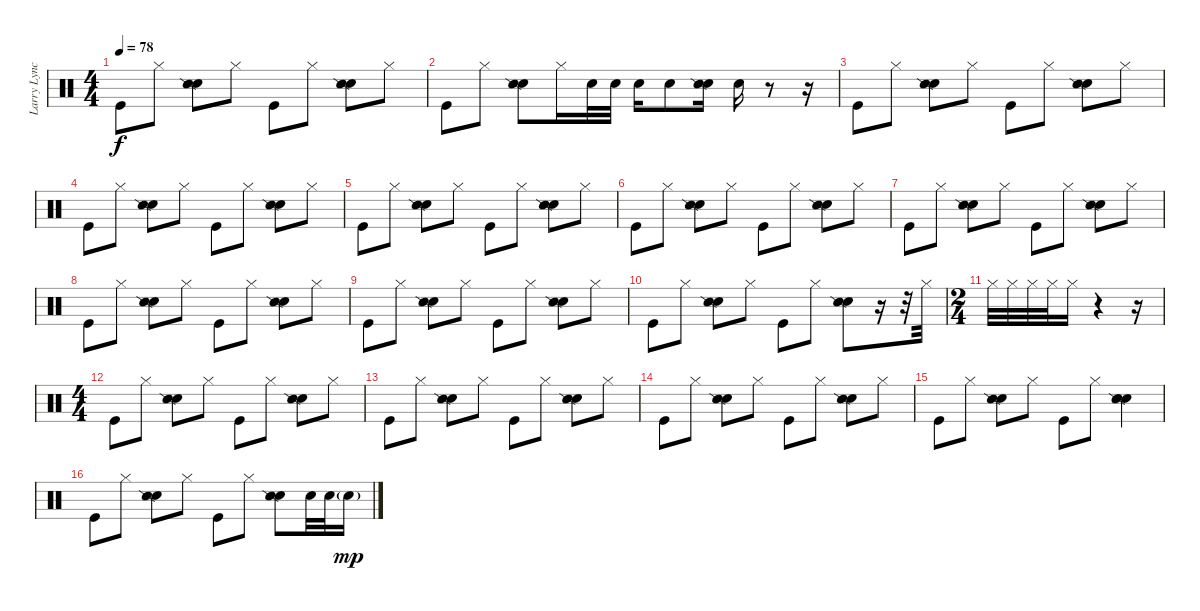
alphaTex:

\track ("Larry Lynch" "Larry Lync") {instrument percussion}
\staff {score}
\articulation defaults
\ts (4 4)
\tempo 78
\clef neutral
\ks c "Kick (hit)".8{dy f} "Hi-Hat (closed)".8
("Electric Snare (hit)" "Snare (side stick) 2").8 "Hi-Hat (closed)".8 "Kick (hit)".8 "Hi-Hat (closed)".8 ("Electric Snare (hit)" "Snare (side stick) 2").8 "Hi-Hat (closed)".8 |
"Kick (hit)".8 "Hi-Hat (closed)".8 ("Electric Snare (hit)" "Snare (side stick) 2").8 "Hi-Hat (closed)".16 "Snare (hit) 2".32 "Snare (hit) 2".32 "Snare (hit) 2".16 "Snare (hit) 2".8 ("Electric Snare (hit)" "Snare (side stick) 2").16 "Snare (hit) 2".16 r.8 r.16 |
"Kick (hit)".8 "Hi-Hat (closed)".8 ("Electric Snare (hit)" "Snare (side stick) 2").8 "Hi-Hat (closed)".8 "Kick (hit)".8 "Hi-Hat (closed)".8 ("Electric Snare (hit)" "Snare (side stick) 2").8 "Hi-Hat (closed)".8 |
"Kick (hit)".8 "Hi-Hat (closed)".8 ("Electric Snare (hit)" "Snare (side stick) 2").8 "Hi-Hat (closed)".8 "Kick (hit)".8 "Hi-Hat (closed)".8 ("Electric Snare (hit)" "Snare (side stick) 2").8 "Hi-Hat (closed)".8 |
"Kick (hit)".8 "Hi-Hat (closed)".8 ("Electric Snare (hit)" "Snare (side stick) 2").8 "Hi-Hat (closed)".8 "Kick (hit)".8 "Hi-Hat (closed)".8 ("Electric Snare (hit)" "Snare (side stick) 2").8 "Hi-Hat (closed)".8 |
"Kick (hit)".8 "Hi-Hat (closed)".8 ("Electric Snare (hit)" "Snare (side stick) 2").8 "Hi-Hat (closed)".8 "Kick (hit)".8 "Hi-Hat (closed)".8 ("Electric Snare (hit)" "Snare (side stick) 2").8 "Hi-Hat (closed)".8 |
"Kick (hit)".8 "Hi-Hat (closed)".8 ("Electric Snare (hit)" "Snare (side stick) 2").8 "Hi-Hat (closed)".8 "Kick (hit)".8 "Hi-Hat (closed)".8 ("Electric Snare (hit)" "Snare (side stick) 2").8 "Hi-Hat (closed)".8 |
"Kick (hit)".8 "Hi-Hat (closed)".8 ("Electric Snare (hit)" "Snare (side stick) 2").8 "Hi-Hat (closed)".8 "Kick (hit)".8 "Hi-Hat (closed)".8 ("Electric Snare (hit)" "Snare (side stick) 2").8 "Hi-Hat (closed)".8 |
"Kick (hit)".8 "Hi-Hat (closed)".8 ("Electric Snare (hit)" "Snare (side stick) 2").8 "Hi-Hat (closed)".8 "Kick (hit)".8 "Hi-Hat (closed)".8 ("Electric Snare (hit)" "Snare (side stick) 2").8 "Hi-Hat (closed)".8 |
"Kick (hit)".8 "Hi-Hat (closed)".8 ("Electric Snare (hit)" "Snare (side stick) 2").8 "Hi-Hat (closed)".8 "Kick (hit)".8 "Hi-Hat (closed)".8 ("Electric Snare (hit)" "Snare (side stick) 2").8 r.16 r.32 "Hi-Hat (closed)".32 |
\ts (2 4)
"Hi-Hat (closed)".32 "Hi-Hat (closed)".32 "Hi-Hat (closed)".32 "Hi-Hat (closed)".32 "Hi-Hat (closed)".16 r.4 r.16 |
\ts (4 4)
"Kick (hit)".8 "Hi-Hat (closed)".8 ("Electric Snare (hit)" "Snare (side stick) 2").8 "Hi-Hat (closed)".8 "Kick (hit)".8 "Hi-Hat (closed)".8 ("Electric Snare (hit)" "Snare (side stick) 2").8 "Hi-Hat (closed)".8 |
"Kick (hit)".8 "Hi-Hat (closed)".8 ("Electric Snare (hit)" "Snare (side stick) 2").8 "Hi-Hat (closed)".8 "Kick (hit)".8 "Hi-Hat (closed)".8 ("Electric Snare (hit)" "Snare (side stick) 2").8 "Hi-Hat (closed)".8 |
"Kick (hit)".8 "Hi-Hat (closed)".8 ("Electric Snare (hit)" "Snare (side stick) 2").8 "Hi-Hat (closed)".8 "Kick (hit)".8 "Hi-Hat (closed)".8 ("Electric Snare (hit)" "Snare (side stick) 2").8 "Hi-Hat (closed)".8 |
"Kick (hit)".8 "Hi-Hat (closed)".8 ("Electric Snare (hit)" "Snare (side stick) 2").8 "Hi-Hat (closed)".8 "Kick (hit)".8 "Hi-Hat (closed)".8 ("Snare (hit) 2" "Electric Snare (hit)" "Snare (side stick) 2").4 |
"Kick (hit)".8 "Hi-Hat (closed)".8 ("Electric Snare (hit)" "Snare (side stick) 2").8 "Hi-Hat (closed)".8 "Kick (hit)".8 "Hi-Hat (closed)".8 ("Electric Snare (hit)" "Snare (side stick) 2").8 "Snare (hit) 2".32 "Snare (hit) 2".32 "Snare (hit) 2"{g}.16{dy mp}
